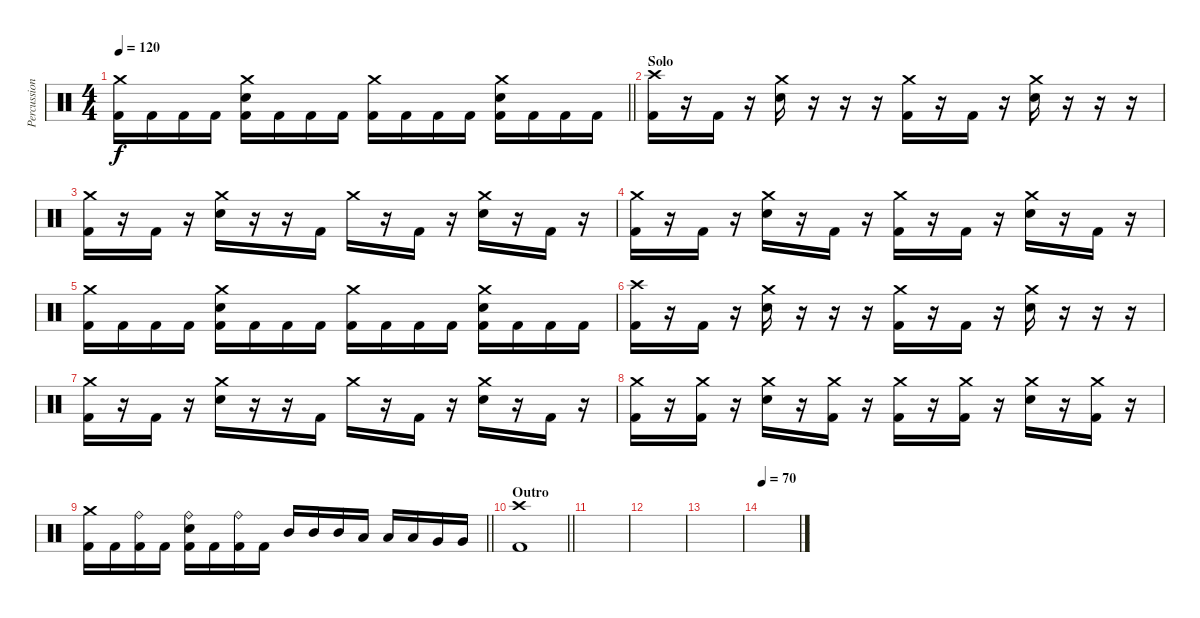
\track ("Percussion" "Percussion") {instrument percussion}
\staff {score}
\articulation defaults
\ts (4 4)
\tempo 120
\clef neutral
\barLineRight lightlight
\ks c
("Crash medium (hit)" "Kick (hit) 2").16{dy f} "Kick (hit) 2".16 "Kick (hit) 2".16 "Kick (hit) 2".16 ("Crash medium (hit)" "Electric Snare (hit)" "Kick (hit) 2").16 "Kick (hit) 2".16 "Kick (hit) 2".16 "Kick (hit) 2".16 ("Crash medium (hit)" "Kick (hit) 2").16 "Kick (hit) 2".16 "Kick (hit) 2".16 "Kick (hit) 2".16 ("Crash medium (hit)" "Electric Snare (hit)" "Kick (hit) 2").16 "Kick (hit) 2".16 "Kick (hit) 2".16 "Kick (hit) 2".16 |
\section ("" "Solo")
("Crash high (hit)" "Kick (hit) 2").16 r.16 "Kick (hit) 2".16 r.16 ("Crash medium (hit)" "Electric Snare (hit)").16 r.16 r.16 r.16 ("Crash medium (hit)" "Kick (hit) 2").16 r.16 "Kick (hit) 2".16 r.16 ("Crash medium (hit)" "Electric Snare (hit)").16 r.16 r.16 r.16 |
("Crash medium (hit)" "Kick (hit) 2").16 r.16 "Kick (hit) 2".16 r.16 ("Crash medium (hit)" "Electric Snare (hit)").16 r.16 r.16 "Kick (hit) 2".16 "Crash medium (hit)".16 r.16 "Kick (hit) 2".16 r.16 ("Crash medium (hit)" "Electric Snare (hit)").16 r.16 "Kick (hit) 2".16 r.16 |
("Crash medium (hit)" "Kick (hit) 2").16 r.16 "Kick (hit) 2".16 r.16 ("Crash medium (hit)" "Electric Snare (hit)").16 r.16 "Kick (hit) 2".16 r.16 ("Crash medium (hit)" "Kick (hit) 2").16 r.16 "Kick (hit) 2".16 r.16 ("Crash medium (hit)" "Electric Snare (hit)").16 r.16 "Kick (hit) 2".16 r.16 |
("Crash medium (hit)" "Kick (hit) 2").16 "Kick (hit) 2".16 "Kick (hit) 2".16 "Kick (hit) 2".16 ("Crash medium (hit)" "Electric Snare (hit)" "Kick (hit) 2").16 "Kick (hit) 2".16 "Kick (hit) 2".16 "Kick (hit) 2".16 ("Crash medium (hit)" "Kick (hit) 2").16 "Kick (hit) 2".16 "Kick (hit) 2".16 "Kick (hit) 2".16 ("Crash medium (hit)" "Electric Snare (hit)" "Kick (hit) 2").16 "Kick (hit) 2".16 "Kick (hit) 2".16 "Kick (hit) 2".16 |
("Crash high (hit)" "Kick (hit) 2").16 r.16 "Kick (hit) 2".16 r.16 ("Crash medium (hit)" "Electric Snare (hit)").16 r.16 r.16 r.16 ("Crash medium (hit)" "Kick (hit) 2").16 r.16 "Kick (hit) 2".16 r.16 ("Crash medium (hit)" "Electric Snare (hit)").16 r.16 r.16 r.16 |
("Crash medium (hit)" "Kick (hit) 2").16 r.16 "Kick (hit) 2".16 r.16 ("Crash medium (hit)" "Electric Snare (hit)").16 r.16 r.16 "Kick (hit) 2".16 "Crash medium (hit)".16 r.16 "Kick (hit) 2".16 r.16 ("Crash medium (hit)" "Electric Snare (hit)").16 r.16 "Kick (hit) 2".16 r.16 |
("Crash medium (hit)" "Kick (hit) 2").16 r.16 ("Crash medium (hit)" "Kick (hit) 2").16 r.16 ("Crash medium (hit)" "Electric Snare (hit)").16 r.16 ("Crash medium (hit)" "Kick (hit) 2").16 r.16 ("Crash medium (hit)" "Kick (hit) 2").16 r.16 ("Crash medium (hit)" "Kick (hit) 2").16 r.16 ("Crash medium (hit)" "Electric Snare (hit)").16 r.16 ("Crash medium (hit)" "Kick (hit) 2").16 r.16 |
\barLineRight lightlight
("Crash medium (hit)" "Kick (hit) 2").16 "Kick (hit) 2".16 ("Ride (bell)" "Kick (hit) 2").16 "Kick (hit) 2".16 ("Ride (bell)" "Electric Snare (hit)" "Kick (hit) 2").16 "Kick (hit) 2".16 ("Ride (bell)" "Kick (hit) 2").16 "Kick (hit) 2".16 "Mid Tom (hit)".16 "Mid Tom (hit)".16 "Mid Tom (hit)".16 "Low Tom (hit)".16 "Low Tom (hit)".16 "Low Tom (hit)".16 "Very Low Tom (hit)".16 "Very Low Tom (hit)".16 |
\section ("" "Outro")
\barLineRight lightlight
("Crash high (hit)" "Kick (hit) 2").1 |
|
|
|
\tempo 70
